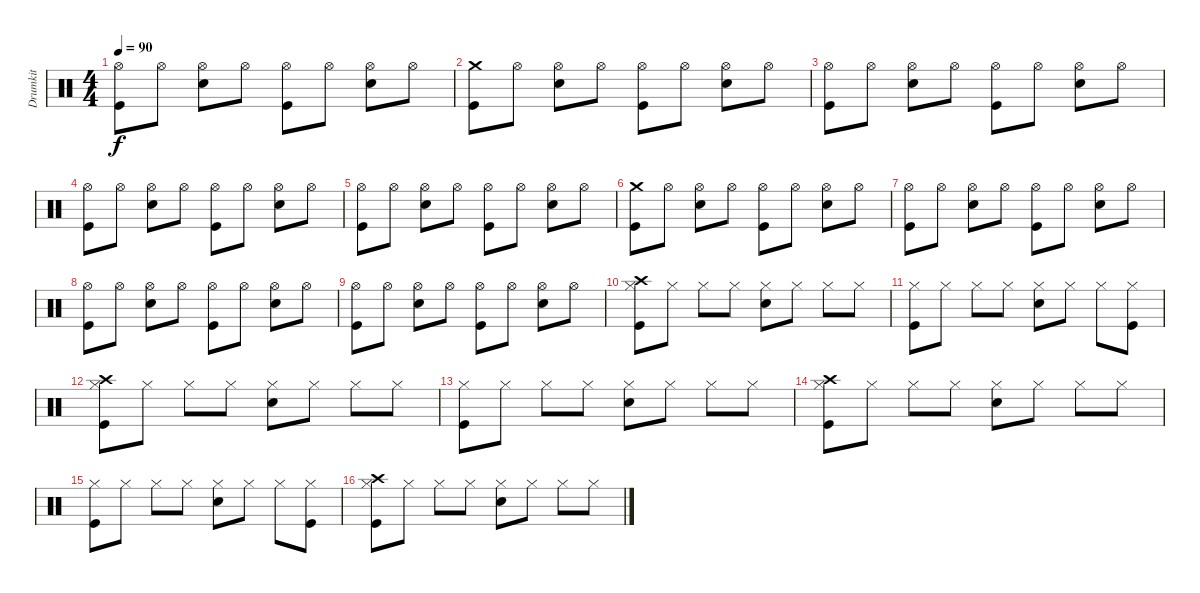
\track ("Drumkit" "Drumkit") {instrument percussion}
\staff {score}
\articulation defaults
\ts (4 4)
\tempo 90
\clef neutral
\ks c
("Hi-Hat (open)" "Kick (hit)").8{dy f} "Hi-Hat (open)".8 ("Hi-Hat (open)" "Snare (hit) 2").8 "Hi-Hat (open)".8 ("Hi-Hat (open)" "Kick (hit)").8 "Hi-Hat (open)".8 ("Hi-Hat (open)" "Snare (hit) 2").8 "Hi-Hat (open)".8 |
("Crash medium (hit)" "Kick (hit)").8 "Hi-Hat (open)".8 ("Hi-Hat (open)" "Snare (hit) 2").8 "Hi-Hat (open)".8 ("Hi-Hat (open)" "Kick (hit)").8 "Hi-Hat (open)".8 ("Hi-Hat (open)" "Snare (hit) 2").8 "Hi-Hat (open)".8 |
("Hi-Hat (open)" "Kick (hit)").8 "Hi-Hat (open)".8 ("Hi-Hat (open)" "Snare (hit) 2").8 "Hi-Hat (open)".8 ("Hi-Hat (open)" "Kick (hit)").8 "Hi-Hat (open)".8 ("Hi-Hat (open)" "Snare (hit) 2").8 "Hi-Hat (open)".8 |
("Hi-Hat (open)" "Kick (hit)").8 "Hi-Hat (open)".8 ("Hi-Hat (open)" "Snare (hit) 2").8 "Hi-Hat (open)".8 ("Hi-Hat (open)" "Kick (hit)").8 "Hi-Hat (open)".8 ("Hi-Hat (open)" "Snare (hit) 2").8 "Hi-Hat (open)".8 |
("Hi-Hat (open)" "Kick (hit)").8 "Hi-Hat (open)".8 ("Hi-Hat (open)" "Snare (hit) 2").8 "Hi-Hat (open)".8 ("Hi-Hat (open)" "Kick (hit)").8 "Hi-Hat (open)".8 ("Hi-Hat (open)" "Snare (hit) 2").8 "Hi-Hat (open)".8 |
("Crash medium (hit)" "Kick (hit)").8 "Hi-Hat (open)".8 ("Hi-Hat (open)" "Snare (hit) 2").8 "Hi-Hat (open)".8 ("Hi-Hat (open)" "Kick (hit)").8 "Hi-Hat (open)".8 ("Hi-Hat (open)" "Snare (hit) 2").8 "Hi-Hat (open)".8 |
("Hi-Hat (open)" "Kick (hit)").8 "Hi-Hat (open)".8 ("Hi-Hat (open)" "Snare (hit) 2").8 "Hi-Hat (open)".8 ("Hi-Hat (open)" "Kick (hit)").8 "Hi-Hat (open)".8 ("Hi-Hat (open)" "Snare (hit) 2").8 "Hi-Hat (open)".8 |
("Hi-Hat (open)" "Kick (hit)").8 "Hi-Hat (open)".8 ("Hi-Hat (open)" "Snare (hit) 2").8 "Hi-Hat (open)".8 ("Hi-Hat (open)" "Kick (hit)").8 "Hi-Hat (open)".8 ("Hi-Hat (open)" "Snare (hit) 2").8 "Hi-Hat (open)".8 |
("Hi-Hat (open)" "Kick (hit)").8 "Hi-Hat (open)".8 ("Hi-Hat (open)" "Snare (hit) 2").8 "Hi-Hat (open)".8 ("Hi-Hat (open)" "Kick (hit)").8 "Hi-Hat (open)".8 ("Hi-Hat (open)" "Snare (hit) 2").8 "Hi-Hat (open)".8 |
("Crash high (hit)" "Hi-Hat (closed)" "Kick (hit)").8 "Hi-Hat (closed)".8 "Hi-Hat (closed)".8 "Hi-Hat (closed)".8 ("Hi-Hat (closed)" "Snare (hit) 2").8 "Hi-Hat (closed)".8 "Hi-Hat (closed)".8 "Hi-Hat (closed)".8 |
("Hi-Hat (closed)" "Kick (hit)").8 "Hi-Hat (closed)".8 "Hi-Hat (closed)".8 "Hi-Hat (closed)".8 ("Hi-Hat (closed)" "Snare (hit) 2").8 "Hi-Hat (closed)".8 "Hi-Hat (closed)".8 ("Hi-Hat (closed)" "Kick (hit)").8 |
("Crash high (hit)" "Hi-Hat (closed)" "Kick (hit)").8 "Hi-Hat (closed)".8 "Hi-Hat (closed)".8 "Hi-Hat (closed)".8 ("Hi-Hat (closed)" "Snare (hit) 2").8 "Hi-Hat (closed)".8 "Hi-Hat (closed)".8 "Hi-Hat (closed)".8 |
("Hi-Hat (closed)" "Kick (hit)").8 "Hi-Hat (closed)".8 "Hi-Hat (closed)".8 "Hi-Hat (closed)".8 ("Hi-Hat (closed)" "Snare (hit) 2").8 "Hi-Hat (closed)".8 "Hi-Hat (closed)".8 "Hi-Hat (closed)".8 |
("Crash high (hit)" "Hi-Hat (closed)" "Kick (hit)").8 "Hi-Hat (closed)".8 "Hi-Hat (closed)".8 "Hi-Hat (closed)".8 ("Hi-Hat (closed)" "Snare (hit) 2").8 "Hi-Hat (closed)".8 "Hi-Hat (closed)".8 "Hi-Hat (closed)".8 |
("Hi-Hat (closed)" "Kick (hit)").8 "Hi-Hat (closed)".8 "Hi-Hat (closed)".8 "Hi-Hat (closed)".8 ("Hi-Hat (closed)" "Snare (hit) 2").8 "Hi-Hat (closed)".8 "Hi-Hat (closed)".8 ("Hi-Hat (closed)" "Kick (hit)").8 |
("Crash high (hit)" "Hi-Hat (closed)" "Kick (hit)").8 "Hi-Hat (closed)".8 "Hi-Hat (closed)".8 "Hi-Hat (closed)".8 ("Hi-Hat (closed)" "Snare (hit) 2").8 "Hi-Hat (closed)".8 "Hi-Hat (closed)".8 "Hi-Hat (closed)".8
